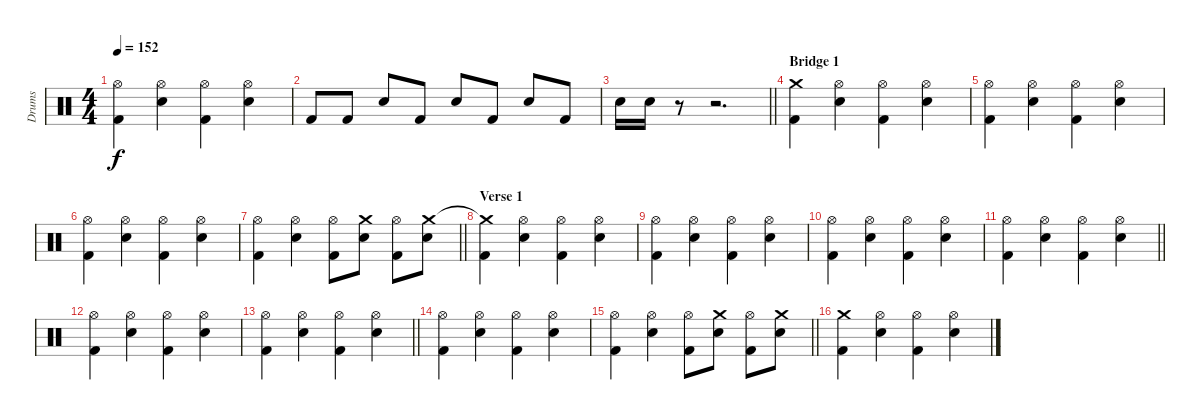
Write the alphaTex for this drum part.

\track ("Drums" "Drums") {instrument percussion}
\staff {score}
\articulation defaults
\ts (4 4)
\tempo 152
\clef neutral
\ks c
("Hi-Hat (open)" "Kick (hit) 2").4{dy f} ("Hi-Hat (open)" "Electric Snare (hit)").4 ("Hi-Hat (open)" "Kick (hit) 2").4 ("Hi-Hat (open)" "Electric Snare (hit)").4 |
"Kick (hit) 2".8 "Kick (hit) 2".8 "Electric Snare (hit)".8 "Kick (hit) 2".8 "Electric Snare (hit)".8 "Kick (hit) 2".8 "Electric Snare (hit)".8 "Kick (hit) 2".8 |
\barLineRight lightlight "Electric Snare (hit)".16 "Electric Snare (hit)".16
r.8 r.2{d} |
\section ("" "Bridge 1")
("Crash medium (hit)" "Kick (hit) 2").4 ("Hi-Hat (open)" "Electric Snare (hit)").4 ("Hi-Hat (open)" "Kick (hit) 2").4 ("Hi-Hat (open)" "Electric Snare (hit)").4 |
("Hi-Hat (open)" "Kick (hit) 2").4 ("Hi-Hat (open)" "Electric Snare (hit)").4 ("Hi-Hat (open)" "Kick (hit) 2").4 ("Hi-Hat (open)" "Electric Snare (hit)").4 |
("Hi-Hat (open)" "Kick (hit) 2").4 ("Hi-Hat (open)" "Electric Snare (hit)").4 ("Hi-Hat (open)" "Kick (hit) 2").4 ("Hi-Hat (open)" "Electric Snare (hit)").4 |
\barLineRight lightlight
("Hi-Hat (open)" "Kick (hit) 2").4 ("Hi-Hat (open)" "Electric Snare (hit)").4 ("Hi-Hat (open)" "Kick (hit) 2").8 ("Crash medium (hit)" "Electric Snare (hit)").8 ("Hi-Hat (open)" "Kick (hit) 2").8 ("Crash medium (hit)" "Electric Snare (hit)").8 |
\section ("" "Verse 1")
("Crash medium (hit)"{t} "Kick (hit) 2").4 ("Hi-Hat (open)" "Electric Snare (hit)").4 ("Hi-Hat (open)" "Kick (hit) 2").4 ("Hi-Hat (open)" "Electric Snare (hit)").4 |
("Hi-Hat (open)" "Kick (hit) 2").4 ("Hi-Hat (open)" "Electric Snare (hit)").4 ("Hi-Hat (open)" "Kick (hit) 2").4 ("Hi-Hat (open)" "Electric Snare (hit)").4 |
("Hi-Hat (open)" "Kick (hit) 2").4 ("Hi-Hat (open)" "Electric Snare (hit)").4 ("Hi-Hat (open)" "Kick (hit) 2").4 ("Hi-Hat (open)" "Electric Snare (hit)").4 |
\barLineRight lightlight
("Hi-Hat (open)" "Kick (hit) 2").4 ("Hi-Hat (open)" "Electric Snare (hit)").4 ("Hi-Hat (open)" "Kick (hit) 2").4 ("Hi-Hat (open)" "Electric Snare (hit)").4 |
("Hi-Hat (open)" "Kick (hit) 2").4 ("Hi-Hat (open)" "Electric Snare (hit)").4 ("Hi-Hat (open)" "Kick (hit) 2").4 ("Hi-Hat (open)" "Electric Snare (hit)").4 |
\barLineRight lightlight
("Hi-Hat (open)" "Kick (hit) 2").4 ("Hi-Hat (open)" "Electric Snare (hit)").4 ("Hi-Hat (open)" "Kick (hit) 2").4 ("Hi-Hat (open)" "Electric Snare (hit)").4 |
("Hi-Hat (open)" "Kick (hit) 2").4 ("Hi-Hat (open)" "Electric Snare (hit)").4 ("Hi-Hat (open)" "Kick (hit) 2").4 ("Hi-Hat (open)" "Electric Snare (hit)").4 |
\barLineRight lightlight
("Hi-Hat (open)" "Kick (hit) 2").4 ("Hi-Hat (open)" "Electric Snare (hit)").4 ("Hi-Hat (open)" "Kick (hit) 2").8 ("Crash medium (hit)" "Electric Snare (hit)").8 ("Hi-Hat (open)" "Kick (hit) 2").8 ("Crash medium (hit)" "Electric Snare (hit)").8 |
\section ("" "")
("Crash medium (hit)" "Kick (hit) 2").4 ("Hi-Hat (open)" "Electric Snare (hit)").4 ("Hi-Hat (open)" "Kick (hit) 2").4 ("Hi-Hat (open)" "Electric Snare (hit)").4
